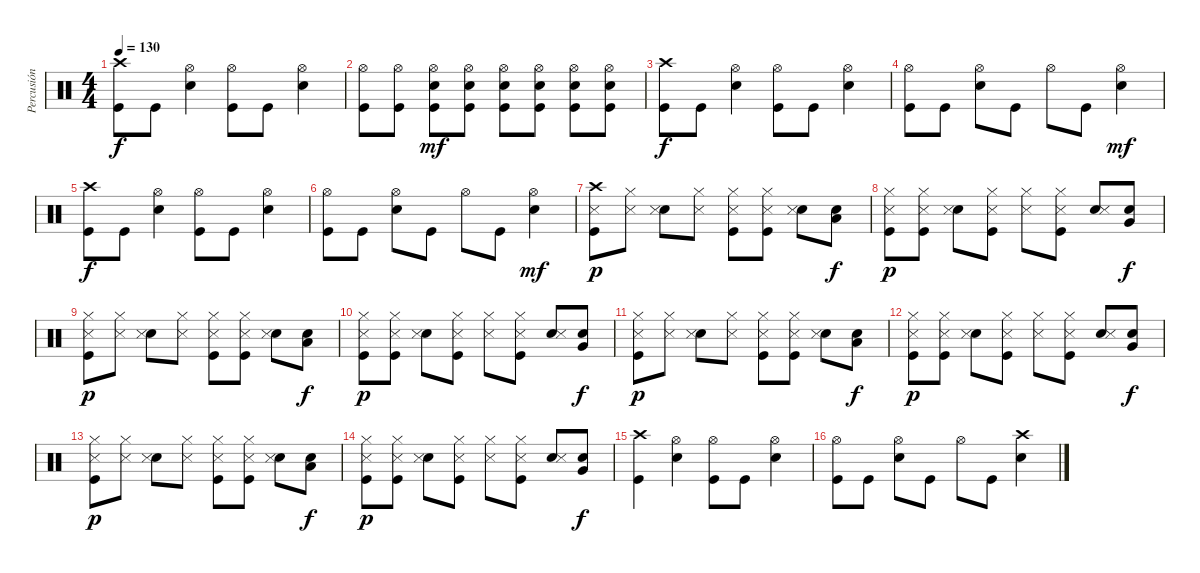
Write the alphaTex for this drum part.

\track ("Percusión" "Percusión") {instrument percussion}
\staff {score}
\articulation defaults
\ts (4 4)
\tempo 130
\clef neutral
\ks c
("Kick (hit)" "Crash high (hit)").8{dy f} "Kick (hit)".8 ("Snare (hit) 2" "Hi-Hat (open)").4 ("Kick (hit)" "Hi-Hat (open)").8 "Kick (hit)".8 ("Snare (hit) 2" "Hi-Hat (open)").4 |
("Kick (hit)" "Hi-Hat (open)").8 ("Kick (hit)" "Hi-Hat (open)").8 ("Kick (hit)" "Snare (hit) 2" "Hi-Hat (open)").8{dy mf} ("Kick (hit)" "Snare (hit) 2" "Hi-Hat (open)").8 ("Kick (hit)" "Snare (hit) 2" "Hi-Hat (open)").8 ("Kick (hit)" "Snare (hit) 2" "Hi-Hat (open)").8 ("Kick (hit)" "Snare (hit) 2" "Hi-Hat (open)").8 ("Kick (hit)" "Snare (hit) 2" "Hi-Hat (open)").8 |
("Kick (hit)" "Crash high (hit)").8{dy f} "Kick (hit)".8 ("Snare (hit) 2" "Hi-Hat (open)").4 ("Kick (hit)" "Hi-Hat (open)").8 "Kick (hit)".8 ("Snare (hit) 2" "Hi-Hat (open)").4 |
("Kick (hit)" "Hi-Hat (open)").8 "Kick (hit)".8 ("Snare (hit) 2" "Hi-Hat (open)").8 "Kick (hit)".8 "Hi-Hat (open)".8 "Kick (hit)".8 ("Snare (hit) 2" "Hi-Hat (open)").4{dy mf} |
("Kick (hit)" "Crash high (hit)").8{dy f} "Kick (hit)".8 ("Snare (hit) 2" "Hi-Hat (open)").4 ("Kick (hit)" "Hi-Hat (open)").8 "Kick (hit)".8 ("Snare (hit) 2" "Hi-Hat (open)").4 |
("Kick (hit)" "Hi-Hat (open)").8 "Kick (hit)".8 ("Snare (hit) 2" "Hi-Hat (open)").8 "Kick (hit)".8 "Hi-Hat (open)".8 "Kick (hit)".8 ("Snare (hit) 2" "Hi-Hat (open)").4{dy mf} |
("Kick (hit)" "Snare (side stick) 3" "Crash high (hit)").8{dy p} ("Snare (side stick) 3" "Hi-Hat (closed)").8 ("Snare (hit) 2" "Snare (side stick) 3").8 ("Snare (side stick) 3" "Hi-Hat (closed)").8 ("Kick (hit)" "Snare (side stick) 3" "Hi-Hat (closed)").8 ("Kick (hit)" "Snare (side stick) 3" "Hi-Hat (closed)").8 ("Snare (hit) 2" "Snare (side stick) 3").8 ("Snare (hit) 2" "Low Tom (hit)").8{dy f} |
("Kick (hit)" "Snare (side stick) 3" "Hi-Hat (closed)").8{dy p} ("Kick (hit)" "Snare (side stick) 3" "Hi-Hat (closed)").8 ("Snare (hit) 2" "Snare (side stick) 3").8 ("Kick (hit)" "Snare (side stick) 3" "Hi-Hat (closed)").8 ("Snare (side stick) 3" "Hi-Hat (closed)").8 ("Kick (hit)" "Snare (side stick) 3" "Hi-Hat (closed)").8 ("Snare (hit) 2" "Snare (side stick) 3").8 ("Snare (hit) 2" "Very Low Tom (hit)").8{dy f} |
("Kick (hit)" "Snare (side stick) 3" "Hi-Hat (closed)").8{dy p} ("Snare (side stick) 3" "Hi-Hat (closed)").8 ("Snare (hit) 2" "Snare (side stick) 3").8 ("Snare (side stick) 3" "Hi-Hat (closed)").8 ("Kick (hit)" "Snare (side stick) 3" "Hi-Hat (closed)").8 ("Kick (hit)" "Snare (side stick) 3" "Hi-Hat (closed)").8 ("Snare (hit) 2" "Snare (side stick) 3").8 ("Snare (hit) 2" "Low Tom (hit)").8{dy f} |
("Kick (hit)" "Snare (side stick) 3" "Hi-Hat (closed)").8{dy p} ("Kick (hit)" "Snare (side stick) 3" "Hi-Hat (closed)").8 ("Snare (hit) 2" "Snare (side stick) 3").8 ("Kick (hit)" "Snare (side stick) 3" "Hi-Hat (closed)").8 ("Snare (side stick) 3" "Hi-Hat (closed)").8 ("Kick (hit)" "Snare (side stick) 3" "Hi-Hat (closed)").8 ("Snare (hit) 2" "Snare (side stick) 3").8 ("Snare (hit) 2" "Very Low Tom (hit)").8{dy f} |
("Kick (hit)" "Snare (side stick) 3" "Hi-Hat (closed)").8{dy p} ("Snare (side stick) 3" "Hi-Hat (closed)").8 ("Snare (hit) 2" "Snare (side stick) 3").8 ("Snare (side stick) 3" "Hi-Hat (closed)").8 ("Kick (hit)" "Snare (side stick) 3" "Hi-Hat (closed)").8 ("Kick (hit)" "Snare (side stick) 3" "Hi-Hat (closed)").8 ("Snare (hit) 2" "Snare (side stick) 3").8 ("Snare (hit) 2" "Low Tom (hit)").8{dy f} |
("Kick (hit)" "Snare (side stick) 3" "Hi-Hat (closed)").8{dy p} ("Kick (hit)" "Snare (side stick) 3" "Hi-Hat (closed)").8 ("Snare (hit) 2" "Snare (side stick) 3").8 ("Kick (hit)" "Snare (side stick) 3" "Hi-Hat (closed)").8 ("Snare (side stick) 3" "Hi-Hat (closed)").8 ("Kick (hit)" "Snare (side stick) 3" "Hi-Hat (closed)").8 ("Snare (hit) 2" "Snare (side stick) 3").8 ("Snare (hit) 2" "Very Low Tom (hit)").8{dy f} |
("Kick (hit)" "Snare (side stick) 3" "Hi-Hat (closed)").8{dy p} ("Snare (side stick) 3" "Hi-Hat (closed)").8 ("Snare (hit) 2" "Snare (side stick) 3").8 ("Snare (side stick) 3" "Hi-Hat (closed)").8 ("Kick (hit)" "Snare (side stick) 3" "Hi-Hat (closed)").8 ("Kick (hit)" "Snare (side stick) 3" "Hi-Hat (closed)").8 ("Snare (hit) 2" "Snare (side stick) 3").8 ("Snare (hit) 2" "Low Tom (hit)").8{dy f} |
("Kick (hit)" "Snare (side stick) 3" "Hi-Hat (closed)").8{dy p} ("Kick (hit)" "Snare (side stick) 3" "Hi-Hat (closed)").8 ("Snare (hit) 2" "Snare (side stick) 3").8 ("Kick (hit)" "Snare (side stick) 3" "Hi-Hat (closed)").8 ("Snare (side stick) 3" "Hi-Hat (closed)").8 ("Kick (hit)" "Snare (side stick) 3" "Hi-Hat (closed)").8 ("Snare (hit) 2" "Snare (side stick) 3").8 ("Snare (hit) 2" "Very Low Tom (hit)").8{dy f} |
("Kick (hit)" "Crash high (hit)").4 ("Snare (hit) 2" "Hi-Hat (open)").4 ("Kick (hit)" "Hi-Hat (open)").8 "Kick (hit)".8 ("Snare (hit) 2" "Hi-Hat (open)").4 |
("Kick (hit)" "Hi-Hat (open)").8 "Kick (hit)".8 ("Snare (hit) 2" "Hi-Hat (open)").8 "Kick (hit)".8 "Hi-Hat (open)".8 "Kick (hit)".8 ("Snare (hit) 2" "Crash high (hit)").4
